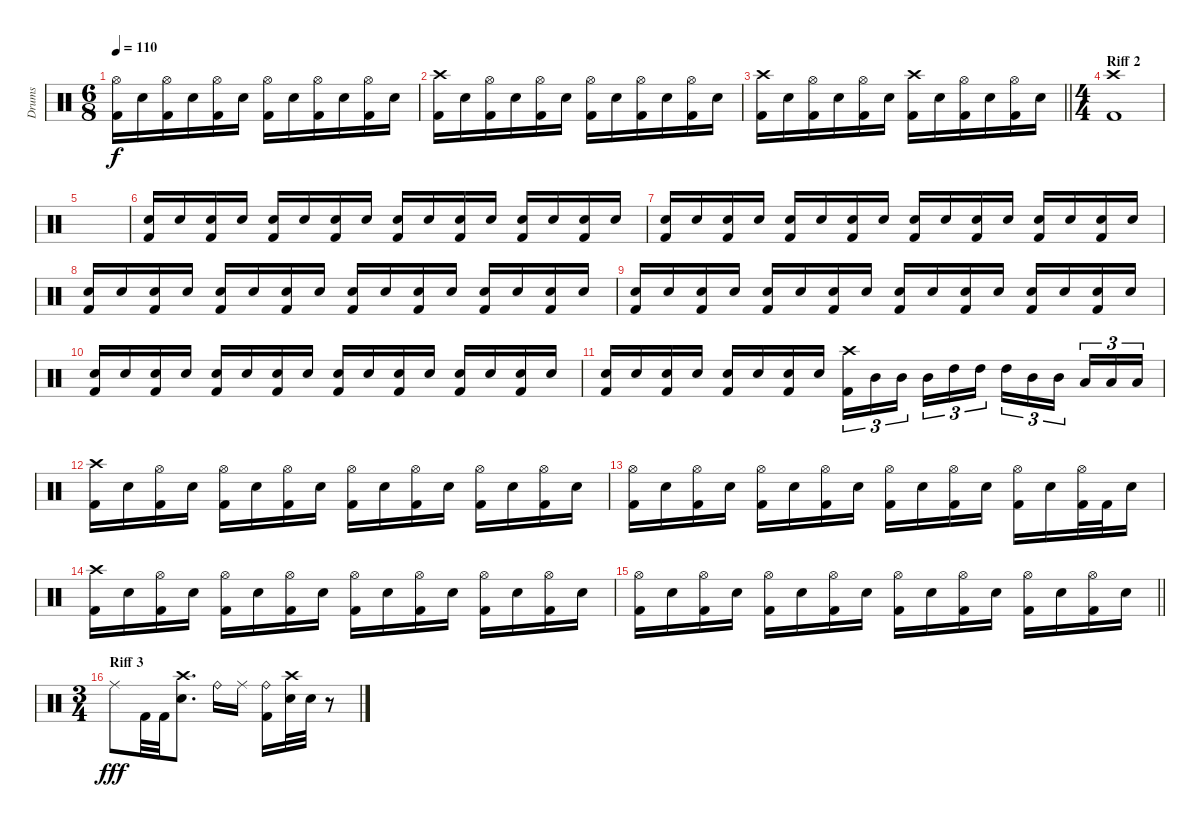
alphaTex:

\track ("Drums" "Drums") {instrument percussion}
\staff {score}
\articulation defaults
\ts (6 8)
\tempo 110
\clef neutral
\ks c
("Hi-Hat (open)" "Kick (hit) 2").16{dy f} "Electric Snare (hit)".16 ("Hi-Hat (open)" "Kick (hit) 2").16 "Electric Snare (hit)".16 ("Hi-Hat (open)" "Kick (hit) 2").16 "Electric Snare (hit)".16 ("Hi-Hat (open)" "Kick (hit) 2").16 "Electric Snare (hit)".16 ("Hi-Hat (open)" "Kick (hit) 2").16 "Electric Snare (hit)".16 ("Hi-Hat (open)" "Kick (hit) 2").16 "Electric Snare (hit)".16 |
("Crash high (hit)" "Kick (hit) 2").16 "Electric Snare (hit)".16 ("Hi-Hat (open)" "Kick (hit) 2").16 "Electric Snare (hit)".16 ("Hi-Hat (open)" "Kick (hit) 2").16 "Electric Snare (hit)".16 ("Hi-Hat (open)" "Kick (hit) 2").16 "Electric Snare (hit)".16 ("Hi-Hat (open)" "Kick (hit) 2").16 "Electric Snare (hit)".16 ("Hi-Hat (open)" "Kick (hit) 2").16 "Electric Snare (hit)".16 |
\barLineRight lightlight
("Crash high (hit)" "Kick (hit) 2").16 "Electric Snare (hit)".16 ("Hi-Hat (open)" "Kick (hit) 2").16 "Electric Snare (hit)".16 ("Hi-Hat (open)" "Kick (hit) 2").16 "Electric Snare (hit)".16 ("Crash high (hit)" "Kick (hit) 2").16 "Electric Snare (hit)".16 ("Hi-Hat (open)" "Kick (hit) 2").16 "Electric Snare (hit)".16 ("Hi-Hat (open)" "Kick (hit) 2").16 "Electric Snare (hit)".16 |
\ts (4 4)
\section ("" "Riff 2")
("Crash high (hit)" "Kick (hit) 2").1 |
|
("Electric Snare (hit)" "Kick (hit) 2").16 "Electric Snare (hit)".16 ("Electric Snare (hit)" "Kick (hit) 2").16 "Electric Snare (hit)".16 ("Electric Snare (hit)" "Kick (hit) 2").16 "Electric Snare (hit)".16 ("Electric Snare (hit)" "Kick (hit) 2").16 "Electric Snare (hit)".16 ("Electric Snare (hit)" "Kick (hit) 2").16 "Electric Snare (hit)".16 ("Electric Snare (hit)" "Kick (hit) 2").16 "Electric Snare (hit)".16 ("Electric Snare (hit)" "Kick (hit) 2").16 "Electric Snare (hit)".16 ("Electric Snare (hit)" "Kick (hit) 2").16 "Electric Snare (hit)".16 |
("Electric Snare (hit)" "Kick (hit) 2").16 "Electric Snare (hit)".16 ("Electric Snare (hit)" "Kick (hit) 2").16 "Electric Snare (hit)".16 ("Electric Snare (hit)" "Kick (hit) 2").16 "Electric Snare (hit)".16 ("Electric Snare (hit)" "Kick (hit) 2").16 "Electric Snare (hit)".16 ("Electric Snare (hit)" "Kick (hit) 2").16 "Electric Snare (hit)".16 ("Electric Snare (hit)" "Kick (hit) 2").16 "Electric Snare (hit)".16 ("Electric Snare (hit)" "Kick (hit) 2").16 "Electric Snare (hit)".16 ("Electric Snare (hit)" "Kick (hit) 2").16 "Electric Snare (hit)".16 |
("Electric Snare (hit)" "Kick (hit) 2").16 "Electric Snare (hit)".16 ("Electric Snare (hit)" "Kick (hit) 2").16 "Electric Snare (hit)".16 ("Electric Snare (hit)" "Kick (hit) 2").16 "Electric Snare (hit)".16 ("Electric Snare (hit)" "Kick (hit) 2").16 "Electric Snare (hit)".16 ("Electric Snare (hit)" "Kick (hit) 2").16 "Electric Snare (hit)".16 ("Electric Snare (hit)" "Kick (hit) 2").16 "Electric Snare (hit)".16 ("Electric Snare (hit)" "Kick (hit) 2").16 "Electric Snare (hit)".16 ("Electric Snare (hit)" "Kick (hit) 2").16 "Electric Snare (hit)".16 |
("Electric Snare (hit)" "Kick (hit) 2").16 "Electric Snare (hit)".16 ("Electric Snare (hit)" "Kick (hit) 2").16 "Electric Snare (hit)".16 ("Electric Snare (hit)" "Kick (hit) 2").16 "Electric Snare (hit)".16 ("Electric Snare (hit)" "Kick (hit) 2").16 "Electric Snare (hit)".16 ("Electric Snare (hit)" "Kick (hit) 2").16 "Electric Snare (hit)".16 ("Electric Snare (hit)" "Kick (hit) 2").16 "Electric Snare (hit)".16 ("Electric Snare (hit)" "Kick (hit) 2").16 "Electric Snare (hit)".16 ("Electric Snare (hit)" "Kick (hit) 2").16 "Electric Snare (hit)".16 |
("Electric Snare (hit)" "Kick (hit) 2").16 "Electric Snare (hit)".16 ("Electric Snare (hit)" "Kick (hit) 2").16 "Electric Snare (hit)".16 ("Electric Snare (hit)" "Kick (hit) 2").16 "Electric Snare (hit)".16 ("Electric Snare (hit)" "Kick (hit) 2").16 "Electric Snare (hit)".16 ("Electric Snare (hit)" "Kick (hit) 2").16 "Electric Snare (hit)".16 ("Electric Snare (hit)" "Kick (hit) 2").16 "Electric Snare (hit)".16 ("Electric Snare (hit)" "Kick (hit) 2").16 "Electric Snare (hit)".16 ("Electric Snare (hit)" "Kick (hit) 2").16 "Electric Snare (hit)".16 |
("Electric Snare (hit)" "Kick (hit) 2").16 "Electric Snare (hit)".16 ("Electric Snare (hit)" "Kick (hit) 2").16 "Electric Snare (hit)".16 ("Electric Snare (hit)" "Kick (hit) 2").16 "Electric Snare (hit)".16 ("Electric Snare (hit)" "Kick (hit) 2").16 "Electric Snare (hit)".16 ("Crash high (hit)" "Kick (hit) 2").16{tu (3 2)} "Mid Tom (hit)".16{tu (3 2)} "Mid Tom (hit)".16{tu (3 2) beam splitsecondary} "Mid Tom (hit)".16{tu (3 2)} "High Tom (hit)".16{tu (3 2)} "High Tom (hit)".16{tu (3 2)} "High Tom (hit)".16{tu (3 2)} "Mid Tom (hit)".16{tu (3 2)} "Mid Tom (hit)".16{tu (3 2) beam splitsecondary} "Low Tom (hit)".16{tu (3 2)} "Low Tom (hit)".16{tu (3 2)} "Low Tom (hit)".16{tu (3 2)} |
("Crash high (hit)" "Kick (hit) 2").16 "Electric Snare (hit)".16 ("Hi-Hat (open)" "Kick (hit) 2").16 "Electric Snare (hit)".16 ("Hi-Hat (open)" "Kick (hit) 2").16 "Electric Snare (hit)".16 ("Hi-Hat (open)" "Kick (hit) 2").16 "Electric Snare (hit)".16 ("Hi-Hat (open)" "Kick (hit) 2").16 "Electric Snare (hit)".16 ("Hi-Hat (open)" "Kick (hit) 2").16 "Electric Snare (hit)".16 ("Hi-Hat (open)" "Kick (hit) 2").16 "Electric Snare (hit)".16 ("Hi-Hat (open)" "Kick (hit) 2").16 "Electric Snare (hit)".16 |
("Hi-Hat (open)" "Kick (hit) 2").16 "Electric Snare (hit)".16 ("Hi-Hat (open)" "Kick (hit) 2").16 "Electric Snare (hit)".16 ("Hi-Hat (open)" "Kick (hit) 2").16 "Electric Snare (hit)".16 ("Hi-Hat (open)" "Kick (hit) 2").16 "Electric Snare (hit)".16 ("Hi-Hat (open)" "Kick (hit) 2").16 "Electric Snare (hit)".16 ("Hi-Hat (open)" "Kick (hit) 2").16 "Electric Snare (hit)".16 ("Hi-Hat (open)" "Kick (hit) 2").16 "Electric Snare (hit)".16 ("Hi-Hat (open)" "Kick (hit) 2").32 "Kick (hit) 2".32 "Electric Snare (hit)".16 |
("Crash high (hit)" "Kick (hit) 2").16 "Electric Snare (hit)".16 ("Hi-Hat (open)" "Kick (hit) 2").16 "Electric Snare (hit)".16 ("Hi-Hat (open)" "Kick (hit) 2").16 "Electric Snare (hit)".16 ("Hi-Hat (open)" "Kick (hit) 2").16 "Electric Snare (hit)".16 ("Hi-Hat (open)" "Kick (hit) 2").16 "Electric Snare (hit)".16 ("Hi-Hat (open)" "Kick (hit) 2").16 "Electric Snare (hit)".16 ("Hi-Hat (open)" "Kick (hit) 2").16 "Electric Snare (hit)".16 ("Hi-Hat (open)" "Kick (hit) 2").16 "Electric Snare (hit)".16 |
\barLineRight lightlight
("Hi-Hat (open)" "Kick (hit) 2").16 "Electric Snare (hit)".16 ("Hi-Hat (open)" "Kick (hit) 2").16 "Electric Snare (hit)".16 ("Hi-Hat (open)" "Kick (hit) 2").16 "Electric Snare (hit)".16 ("Hi-Hat (open)" "Kick (hit) 2").16 "Electric Snare (hit)".16 ("Hi-Hat (open)" "Kick (hit) 2").16 "Electric Snare (hit)".16 ("Hi-Hat (open)" "Kick (hit) 2").16 "Electric Snare (hit)".16 ("Hi-Hat (open)" "Kick (hit) 2").16 "Electric Snare (hit)".16 ("Hi-Hat (open)" "Kick (hit) 2").16 "Electric Snare (hit)".16 |
\ts (3 4)
\section ("" "Riff 3")
"Ride (middle)".8{dy fff} "Kick (hit) 2".32 "Kick (hit) 2".32 ("Crash high (hit)" "Electric Snare (hit)").8{d} "Ride (bell)".16 "Ride (middle)".16 ("Ride (bell)" "Kick (hit) 2").16 ("Crash high (hit)" "Electric Snare (hit)").32 "Electric Snare (hit)".32 r.8
